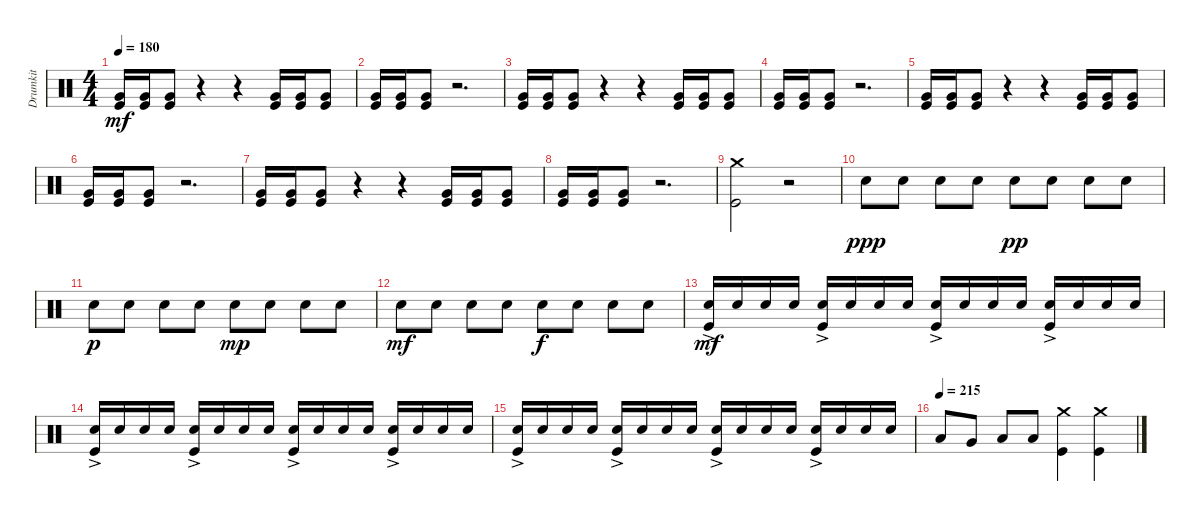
\track ("Drumkit" "Drumkit") {instrument percussion}
\staff {score}
\articulation defaults
\ts (4 4)
\tempo 180
\clef neutral
\ks c
("Kick (hit)" "Very Low Tom (hit)").16{dy mf} ("Kick (hit)" "Very Low Tom (hit)").16 ("Kick (hit)" "Very Low Tom (hit)").8 r.4 r.4 ("Kick (hit)" "Very Low Tom (hit)").16 ("Kick (hit)" "Very Low Tom (hit)").16 ("Kick (hit)" "Very Low Tom (hit)").8 |
("Kick (hit)" "Very Low Tom (hit)").16 ("Kick (hit)" "Very Low Tom (hit)").16 ("Kick (hit)" "Very Low Tom (hit)").8 r.2{d} |
("Kick (hit)" "Very Low Tom (hit)").16 ("Kick (hit)" "Very Low Tom (hit)").16 ("Kick (hit)" "Very Low Tom (hit)").8 r.4 r.4 ("Kick (hit)" "Very Low Tom (hit)").16 ("Kick (hit)" "Very Low Tom (hit)").16 ("Kick (hit)" "Very Low Tom (hit)").8 |
("Kick (hit)" "Very Low Tom (hit)").16 ("Kick (hit)" "Very Low Tom (hit)").16 ("Kick (hit)" "Very Low Tom (hit)").8 r.2{d} |
("Kick (hit)" "Very Low Tom (hit)").16 ("Kick (hit)" "Very Low Tom (hit)").16 ("Kick (hit)" "Very Low Tom (hit)").8 r.4 r.4 ("Kick (hit)" "Very Low Tom (hit)").16 ("Kick (hit)" "Very Low Tom (hit)").16 ("Kick (hit)" "Very Low Tom (hit)").8 |
("Kick (hit)" "Very Low Tom (hit)").16 ("Kick (hit)" "Very Low Tom (hit)").16 ("Kick (hit)" "Very Low Tom (hit)").8 r.2{d} |
("Kick (hit)" "Very Low Tom (hit)").16 ("Kick (hit)" "Very Low Tom (hit)").16 ("Kick (hit)" "Very Low Tom (hit)").8 r.4 r.4 ("Kick (hit)" "Very Low Tom (hit)").16 ("Kick (hit)" "Very Low Tom (hit)").16 ("Kick (hit)" "Very Low Tom (hit)").8 |
("Kick (hit)" "Very Low Tom (hit)").16 ("Kick (hit)" "Very Low Tom (hit)").16 ("Kick (hit)" "Very Low Tom (hit)").8 r.2{d} |
("Kick (hit)" "Crash medium (hit)").2 r.2 |
"Snare (hit) 2".8{dy ppp} "Snare (hit) 2".8 "Snare (hit) 2".8 "Snare (hit) 2".8 "Snare (hit) 2".8{dy pp} "Snare (hit) 2".8 "Snare (hit) 2".8 "Snare (hit) 2".8 |
"Snare (hit) 2".8{dy p} "Snare (hit) 2".8 "Snare (hit) 2".8 "Snare (hit) 2".8 "Snare (hit) 2".8{dy mp} "Snare (hit) 2".8 "Snare (hit) 2".8 "Snare (hit) 2".8 |
"Snare (hit) 2".8{dy mf} "Snare (hit) 2".8 "Snare (hit) 2".8 "Snare (hit) 2".8 "Snare (hit) 2".8{dy f} "Snare (hit) 2".8 "Snare (hit) 2".8 "Snare (hit) 2".8 |
("Snare (hit) 2"{ac} "Kick (hit)").16{dy mf} "Snare (hit) 2".16 "Snare (hit) 2".16 "Snare (hit) 2".16 ("Snare (hit) 2"{ac} "Kick (hit)").16 "Snare (hit) 2".16 "Snare (hit) 2".16 "Snare (hit) 2".16 ("Snare (hit) 2"{ac} "Kick (hit)").16 "Snare (hit) 2".16 "Snare (hit) 2".16 "Snare (hit) 2".16 ("Snare (hit) 2"{ac} "Kick (hit)").16 "Snare (hit) 2".16 "Snare (hit) 2".16 "Snare (hit) 2".16 |
("Snare (hit) 2"{ac} "Kick (hit)").16 "Snare (hit) 2".16 "Snare (hit) 2".16 "Snare (hit) 2".16 ("Snare (hit) 2"{ac} "Kick (hit)").16 "Snare (hit) 2".16 "Snare (hit) 2".16 "Snare (hit) 2".16 ("Snare (hit) 2"{ac} "Kick (hit)").16 "Snare (hit) 2".16 "Snare (hit) 2".16 "Snare (hit) 2".16 ("Snare (hit) 2"{ac} "Kick (hit)").16 "Snare (hit) 2".16 "Snare (hit) 2".16 "Snare (hit) 2".16 |
("Snare (hit) 2"{ac} "Kick (hit)").16 "Snare (hit) 2".16 "Snare (hit) 2".16 "Snare (hit) 2".16 ("Snare (hit) 2"{ac} "Kick (hit)").16 "Snare (hit) 2".16 "Snare (hit) 2".16 "Snare (hit) 2".16 ("Snare (hit) 2"{ac} "Kick (hit)").16 "Snare (hit) 2".16 "Snare (hit) 2".16 "Snare (hit) 2".16 ("Snare (hit) 2"{ac} "Kick (hit)").16 "Snare (hit) 2".16 "Snare (hit) 2".16 "Snare (hit) 2".16 |
\tempo (215)
"Low Floor Tom (hit)".8 "Very Low Tom (hit)".8 "Low Tom (hit)".8 "Low Tom (hit)".8 ("Kick (hit)" "Crash medium (hit)").4 ("Kick (hit)" "Crash medium (hit)").4
